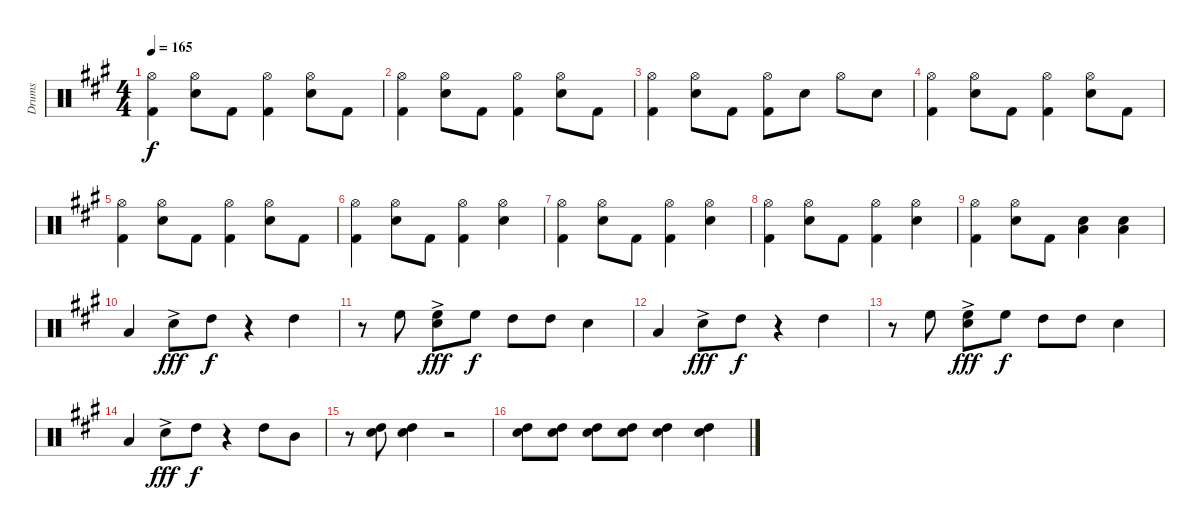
\track ("Drums" "Drums") {instrument percussion}
\staff {score}
\articulation defaults
\ts (4 4)
\tempo 165
\clef neutral
\ks a
("Hi-Hat (open)" "Kick (hit) 2").4{dy f} ("Hi-Hat (open)" "Electric Snare (hit)").8 "Kick (hit) 2".8 ("Hi-Hat (open)" "Kick (hit) 2").4 ("Hi-Hat (open)" "Electric Snare (hit)").8 "Kick (hit) 2".8 |
("Hi-Hat (open)" "Kick (hit) 2").4 ("Hi-Hat (open)" "Electric Snare (hit)").8 "Kick (hit) 2".8 ("Hi-Hat (open)" "Kick (hit) 2").4 ("Hi-Hat (open)" "Electric Snare (hit)").8 "Kick (hit) 2".8 |
("Hi-Hat (open)" "Kick (hit) 2").4 ("Hi-Hat (open)" "Electric Snare (hit)").8 "Kick (hit) 2".8 ("Hi-Hat (open)" "Kick (hit) 2").8 "Electric Snare (hit)".8 "Hi-Hat (open)".8 "Electric Snare (hit)".8 |
("Hi-Hat (open)" "Kick (hit) 2").4 ("Hi-Hat (open)" "Electric Snare (hit)").8 "Kick (hit) 2".8 ("Hi-Hat (open)" "Kick (hit) 2").4 ("Hi-Hat (open)" "Electric Snare (hit)").8 "Kick (hit) 2".8 |
("Hi-Hat (open)" "Kick (hit) 2").4 ("Hi-Hat (open)" "Electric Snare (hit)").8 "Kick (hit) 2".8 ("Hi-Hat (open)" "Kick (hit) 2").4 ("Hi-Hat (open)" "Electric Snare (hit)").8 "Kick (hit) 2".8 |
("Hi-Hat (open)" "Kick (hit) 2").4 ("Hi-Hat (open)" "Electric Snare (hit)").8 "Kick (hit) 2".8 ("Hi-Hat (open)" "Kick (hit) 2").4 ("Hi-Hat (open)" "Electric Snare (hit)").4 |
("Hi-Hat (open)" "Kick (hit) 2").4 ("Hi-Hat (open)" "Electric Snare (hit)").8 "Kick (hit) 2".8 ("Hi-Hat (open)" "Kick (hit) 2").4 ("Hi-Hat (open)" "Electric Snare (hit)").4 |
("Hi-Hat (open)" "Kick (hit) 2").4 ("Hi-Hat (open)" "Electric Snare (hit)").8 "Kick (hit) 2".8 ("Hi-Hat (open)" "Kick (hit) 2").4 ("Hi-Hat (open)" "Electric Snare (hit)").4 |
("Hi-Hat (open)" "Kick (hit) 2").4 ("Hi-Hat (open)" "Electric Snare (hit)").8 "Kick (hit) 2".8 ("Low Tom (hit)" "Electric Snare (hit)").4 ("Low Tom (hit)" "Electric Snare (hit)").4 |
"Low Tom (hit)".4 "Hand Clap (hit)"{ac}.8{dy fff} "High Tom (hit)".8{dy f} r.4 "High Tom (hit)".4 |
r.8 "High Floor Tom (hit)".8 ("High Floor Tom (hit)" "Hand Clap (hit)"{ac}).8{dy fff} "High Floor Tom (hit)".8{dy f} "High Tom (hit)".8 "High Tom (hit)".8 "Electric Snare (hit)".4 |
"Low Tom (hit)".4 "Hand Clap (hit)"{ac}.8{dy fff} "High Tom (hit)".8{dy f} r.4 "High Tom (hit)".4 |
r.8 "High Floor Tom (hit)".8 ("High Floor Tom (hit)" "Hand Clap (hit)"{ac}).8{dy fff} "High Floor Tom (hit)".8{dy f} "High Tom (hit)".8 "High Tom (hit)".8 "Electric Snare (hit)".4 |
"Low Tom (hit)".4 "Hand Clap (hit)"{ac}.8{dy fff} "High Tom (hit)".8{dy f} r.4 "High Tom (hit)".8 "Mid Tom (hit)".8 |
r.8 ("High Tom (hit)" "Electric Snare (hit)").8 ("High Tom (hit)" "Electric Snare (hit)").4 r.2 |
("High Tom (hit)" "Electric Snare (hit)").8 ("High Tom (hit)" "Electric Snare (hit)").8 ("High Tom (hit)" "Electric Snare (hit)").8 ("High Tom (hit)" "Electric Snare (hit)").8 ("High Tom (hit)" "Electric Snare (hit)").4 ("High Tom (hit)" "Electric Snare (hit)").4
